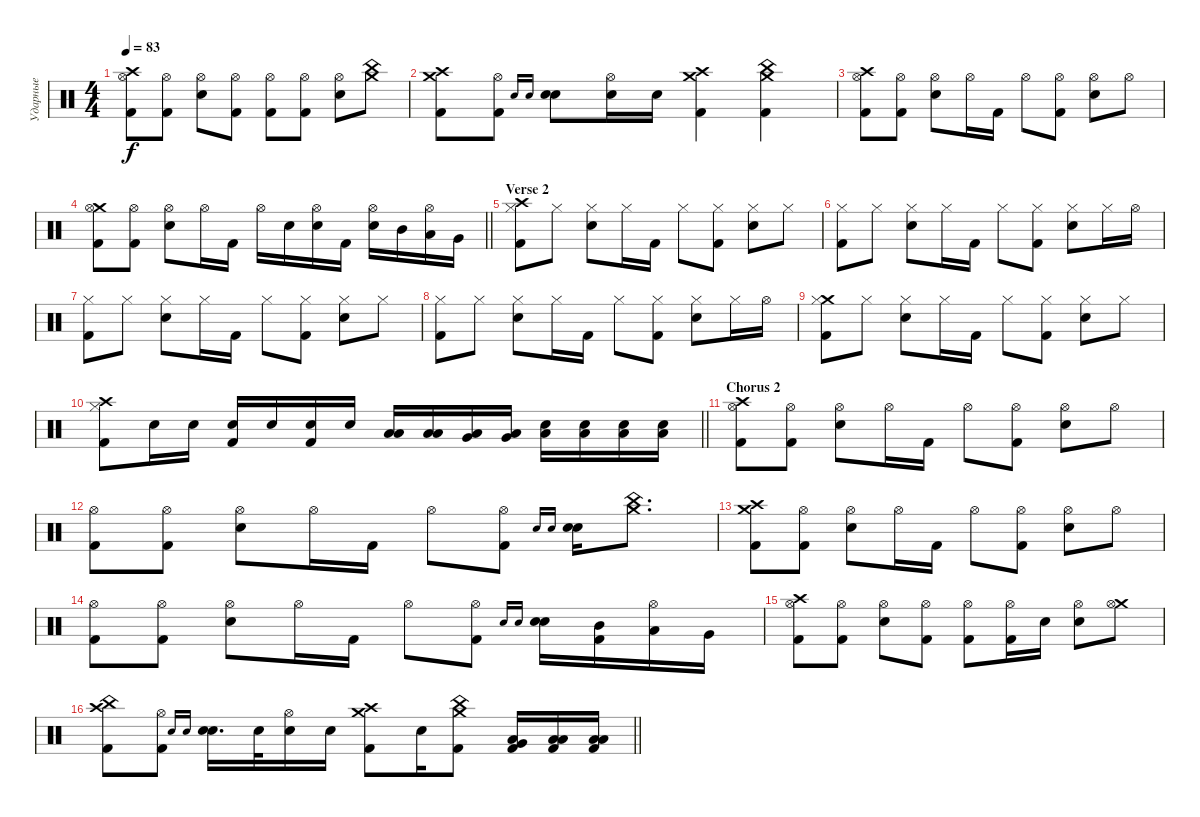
\track ("Ударные" "Ударные") {instrument percussion}
\staff {score}
\articulation defaults
\ts (4 4)
\tempo 83
\clef neutral
\ks c
("Crash high (hit)" "Hi-Hat (open)" "Kick (hit) 2").8{dy f} ("Hi-Hat (open)" "Kick (hit) 2").8 ("Hi-Hat (open)" "Snare (hit) 2").8 ("Hi-Hat (open)" "Kick (hit) 2").8 ("Hi-Hat (open)" "Kick (hit) 2").8 ("Hi-Hat (open)" "Kick (hit) 2").8 ("Hi-Hat (open)" "Snare (hit) 2").8 ("Crash medium (hit)" "China (hit)").8 |
("Crash medium (hit)" "Crash high (hit)" "Kick (hit) 2").8 ("Hi-Hat (open)" "Kick (hit) 2").8 "Snare (hit) 2".16{gr onbeat} "Snare (hit) 2".16{gr onbeat} ("Snare (hit) 2" "Snare (hit) 2").8 ("Hi-Hat (open)" "Snare (hit) 2").16 "Snare (hit) 2".16 ("Crash high (hit)" "Crash medium (hit)" "Kick (hit) 2").4 ("Crash medium (hit)" "China (hit)" "Kick (hit) 2").4 |
("Crash high (hit)" "Hi-Hat (open)" "Kick (hit) 2").8 ("Hi-Hat (open)" "Kick (hit) 2").8 ("Hi-Hat (open)" "Snare (hit) 2").8 "Hi-Hat (open)".16 "Kick (hit) 2".16 "Hi-Hat (open)".8 ("Hi-Hat (open)" "Kick (hit) 2").8 ("Hi-Hat (open)" "Snare (hit) 2").8 "Hi-Hat (open)".8 |
\barLineRight lightlight
("Crash medium (hit)" "Hi-Hat (open)" "Kick (hit) 2").8 ("Hi-Hat (open)" "Kick (hit) 2").8 ("Hi-Hat (open)" "Snare (hit) 2").8 "Hi-Hat (open)".16 "Kick (hit) 2".16 "Hi-Hat (open)".16 "Snare (hit) 2".16 ("Hi-Hat (open)" "Snare (hit) 2").16 "Kick (hit) 2".16 ("Hi-Hat (open)" "Snare (hit) 2").16 "Mid Tom (hit)".16 ("Hi-Hat (open)" "Low Tom (hit)").16 "Very Low Tom (hit)".16 |
\section ("" "Verse 2")
("Crash high (hit)" "Hi-Hat (closed)" "Kick (hit) 2").8 "Hi-Hat (closed)".8 ("Hi-Hat (closed)" "Snare (hit) 2").8 "Hi-Hat (closed)".16 "Kick (hit) 2".16 "Hi-Hat (closed)".8 ("Hi-Hat (closed)" "Kick (hit) 2").8 ("Hi-Hat (closed)" "Snare (hit) 2").8 "Hi-Hat (closed)".8 |
("Hi-Hat (closed)" "Kick (hit) 2").8 "Hi-Hat (closed)".8 ("Hi-Hat (closed)" "Snare (hit) 2").8 "Hi-Hat (closed)".16 "Kick (hit) 2".16 "Hi-Hat (closed)".8 ("Hi-Hat (closed)" "Kick (hit) 2").8 ("Hi-Hat (closed)" "Snare (hit) 2").8 "Hi-Hat (closed)".16 "Hi-Hat (open)".16 |
("Hi-Hat (closed)" "Kick (hit) 2").8 "Hi-Hat (closed)".8 ("Hi-Hat (closed)" "Snare (hit) 2").8 "Hi-Hat (closed)".16 "Kick (hit) 2".16 "Hi-Hat (closed)".8 ("Hi-Hat (closed)" "Kick (hit) 2").8 ("Hi-Hat (closed)" "Snare (hit) 2").8 "Hi-Hat (closed)".8 |
("Hi-Hat (closed)" "Kick (hit) 2").8 "Hi-Hat (closed)".8 ("Hi-Hat (closed)" "Snare (hit) 2").8 "Hi-Hat (closed)".16 "Kick (hit) 2".16 "Hi-Hat (closed)".8 ("Hi-Hat (closed)" "Kick (hit) 2").8 ("Hi-Hat (closed)" "Snare (hit) 2").8 "Hi-Hat (closed)".16 "Hi-Hat (open)".16 |
("Crash medium (hit)" "Hi-Hat (closed)" "Kick (hit) 2").8 "Hi-Hat (closed)".8 ("Hi-Hat (closed)" "Snare (hit) 2").8 "Hi-Hat (closed)".16 "Kick (hit) 2".16 "Hi-Hat (closed)".8 ("Hi-Hat (closed)" "Kick (hit) 2").8 ("Hi-Hat (closed)" "Snare (hit) 2").8 "Hi-Hat (closed)".8 |
\barLineRight lightlight
("Crash high (hit)" "Hi-Hat (closed)" "Kick (hit) 2").8 "Snare (hit) 2".16 "Snare (hit) 2".16 ("Snare (hit) 2" "Kick (hit) 2").16 "Snare (hit) 2".16 ("Snare (hit) 2" "Kick (hit) 2").16 "Snare (hit) 2".16 ("Low Tom (hit)" "Low Floor Tom (hit)").16 ("Low Tom (hit)" "Low Floor Tom (hit)").16 ("Very Low Tom (hit)" "Low Floor Tom (hit)").16 ("Very Low Tom (hit)" "Low Floor Tom (hit)").16 ("Snare (hit) 2" "Low Floor Tom (hit)").16 ("Snare (hit) 2" "Low Floor Tom (hit)").16 ("Snare (hit) 2" "Low Floor Tom (hit)").16 ("Snare (hit) 2" "Low Floor Tom (hit)").16 |
\section ("" "Chorus 2")
("Crash high (hit)" "Hi-Hat (open)" "Kick (hit) 2").8 ("Hi-Hat (open)" "Kick (hit) 2").8 ("Hi-Hat (open)" "Snare (hit) 2").8 "Hi-Hat (open)".16 "Kick (hit) 2".16 "Hi-Hat (open)".8 ("Hi-Hat (open)" "Kick (hit) 2").8 ("Hi-Hat (open)" "Snare (hit) 2").8 "Hi-Hat (open)".8 |
("Hi-Hat (open)" "Kick (hit) 2").8 ("Hi-Hat (open)" "Kick (hit) 2").8 ("Hi-Hat (open)" "Snare (hit) 2").8 "Hi-Hat (open)".16 "Kick (hit) 2".16 "Hi-Hat (open)".8 ("Hi-Hat (open)" "Kick (hit) 2").8 "Snare (hit) 2".16{gr onbeat} "Snare (hit) 2".16{gr onbeat} ("Snare (hit) 2" "Snare (hit) 2").16 ("Crash medium (hit)" "China (hit)").8{d} |
("Crash high (hit)" "Crash medium (hit)" "Kick (hit) 2").8 ("Hi-Hat (open)" "Kick (hit) 2").8 ("Hi-Hat (open)" "Snare (hit) 2").8 "Hi-Hat (open)".16 "Kick (hit) 2".16 "Hi-Hat (open)".8 ("Hi-Hat (open)" "Kick (hit) 2").8 ("Hi-Hat (open)" "Snare (hit) 2").8 "Hi-Hat (open)".8 |
("Hi-Hat (open)" "Kick (hit) 2").8 ("Hi-Hat (open)" "Kick (hit) 2").8 ("Hi-Hat (open)" "Snare (hit) 2").8 "Hi-Hat (open)".16 "Kick (hit) 2".16 "Hi-Hat (open)".8 ("Hi-Hat (open)" "Kick (hit) 2").8 "Snare (hit) 2".16{gr onbeat} "Snare (hit) 2".16{gr onbeat} ("Snare (hit) 2" "Snare (hit) 2").16 ("Mid Tom (hit)" "Kick (hit) 2").16 ("Hi-Hat (open)" "Low Tom (hit)").16 "Very Low Tom (hit)".16 |
("Crash high (hit)" "Hi-Hat (open)" "Kick (hit) 2").8 ("Hi-Hat (open)" "Kick (hit) 2").8 ("Hi-Hat (open)" "Snare (hit) 2").8 ("Hi-Hat (open)" "Kick (hit) 2").8 ("Hi-Hat (open)" "Kick (hit) 2").8 ("Hi-Hat (open)" "Kick (hit) 2").16 "Snare (hit) 2".16 ("Hi-Hat (open)" "Snare (hit) 2").8 ("Crash medium (hit)" "Hi-Hat (open)").8 |
\barLineRight lightlight
("Crash high (hit)" "China (hit)" "Kick (hit) 2").8 ("Hi-Hat (open)" "Kick (hit) 2").8 "Snare (hit) 2".16{gr onbeat} "Snare (hit) 2".16{gr onbeat} ("Snare (hit) 2" "Snare (hit) 2").16{d} "Snare (hit) 2".32 ("Hi-Hat (open)" "Snare (hit) 2").16 "Snare (hit) 2".16 ("Crash high (hit)" "Crash medium (hit)" "Kick (hit) 2").8 "Snare (hit) 2".16 ("Crash medium (hit)" "China (hit)" "Kick (hit) 2").8 ("Low Tom (hit)" "Very Low Tom (hit)" "Kick (hit) 2").16 ("Low Tom (hit)" "Low Floor Tom (hit)" "Kick (hit) 2").16 ("Low Tom (hit)" "Low Floor Tom (hit)" "Kick (hit) 2").16
